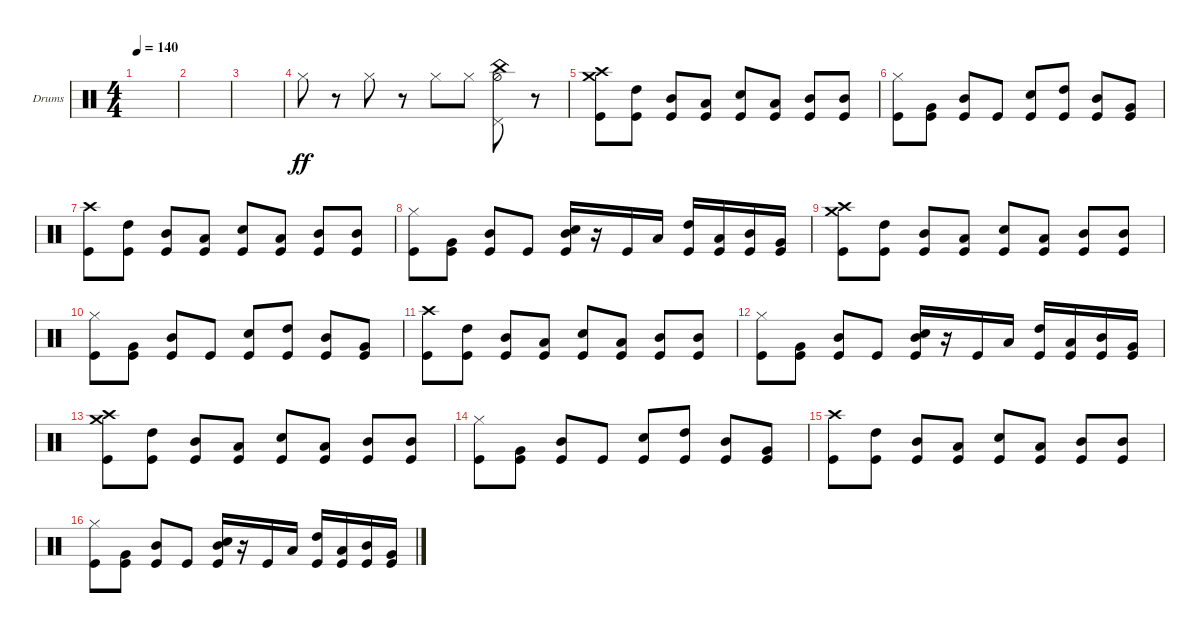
\bracketExtendMode groupsimilarinstruments
\firstSystemTrackNameOrientation horizontal
\otherSystemsTrackNameOrientation horizontal
\track ("Drumkit" "Drums") {instrument percussion}
\staff {score}
\articulation defaults
\ts (4 4)
\tempo 140
\clef neutral
\ks c
|
|
|
"Hi-Hat (closed)".8{dy ff} r.8 "Hi-Hat (closed)".8 r.8 "Hi-Hat (closed)".8 "Hi-Hat (closed)".8 ("Pedal Hi-Hat (hit)" "Hi-Hat (half)" "China (hit)").8 r.8 |
("Kick (hit)" "Crash high (hit)" "Crash medium (hit)").8 ("Kick (hit)" "High Tom (hit)").8 ("Kick (hit)" "Mid Tom (hit)").8 ("Kick (hit)" "Low Tom (hit)").8 ("Kick (hit)" "Snare (hit) 2").8 ("Kick (hit)" "Low Tom (hit)").8 ("Kick (hit)" "Mid Tom (hit)").8 ("Kick (hit)" "Mid Tom (hit)").8 |
("Hi-Hat (closed)" "Kick (hit)").8 ("Kick (hit)" "Very Low Tom (hit)").8 ("Kick (hit)" "Mid Tom (hit)").8 "Kick (hit)".8 ("Snare (hit) 2" "Kick (hit)").8 ("Kick (hit)" "High Tom (hit)").8 ("Kick (hit)" "Mid Tom (hit)").8 ("Kick (hit)" "Very Low Tom (hit)").8 |
("Kick (hit)" "Crash high (hit)").8 ("Kick (hit)" "High Tom (hit)").8 ("Kick (hit)" "Mid Tom (hit)").8 ("Kick (hit)" "Low Tom (hit)").8 ("Kick (hit)" "Snare (hit) 2").8 ("Kick (hit)" "Low Tom (hit)").8 ("Kick (hit)" "Mid Tom (hit)").8 ("Kick (hit)" "Mid Tom (hit)").8 |
("Hi-Hat (closed)" "Kick (hit)").8 ("Kick (hit)" "Very Low Tom (hit)").8 ("Kick (hit)" "Mid Tom (hit)").8 "Kick (hit)".8 ("Kick (hit)" "Mid Tom (hit)" "Snare (hit) 2").16 r.16 "Kick (hit)".16 "Low Tom (hit)".16 ("Kick (hit)" "High Tom (hit)").16 ("Kick (hit)" "Low Tom (hit)").16 ("Kick (hit)" "Mid Tom (hit)").16 ("Kick (hit)" "Very Low Tom (hit)").16 |
("Kick (hit)" "Crash high (hit)" "Crash medium (hit)").8 ("Kick (hit)" "High Tom (hit)").8 ("Kick (hit)" "Mid Tom (hit)").8 ("Kick (hit)" "Low Tom (hit)").8 ("Kick (hit)" "Snare (hit) 2").8 ("Kick (hit)" "Low Tom (hit)").8 ("Kick (hit)" "Mid Tom (hit)").8 ("Kick (hit)" "Mid Tom (hit)").8 |
("Hi-Hat (closed)" "Kick (hit)").8 ("Kick (hit)" "Very Low Tom (hit)").8 ("Kick (hit)" "Mid Tom (hit)").8 "Kick (hit)".8 ("Snare (hit) 2" "Kick (hit)").8 ("Kick (hit)" "High Tom (hit)").8 ("Kick (hit)" "Mid Tom (hit)").8 ("Kick (hit)" "Very Low Tom (hit)").8 |
("Kick (hit)" "Crash high (hit)").8 ("Kick (hit)" "High Tom (hit)").8 ("Kick (hit)" "Mid Tom (hit)").8 ("Kick (hit)" "Low Tom (hit)").8 ("Kick (hit)" "Snare (hit) 2").8 ("Kick (hit)" "Low Tom (hit)").8 ("Kick (hit)" "Mid Tom (hit)").8 ("Kick (hit)" "Mid Tom (hit)").8 |
("Hi-Hat (closed)" "Kick (hit)").8 ("Kick (hit)" "Very Low Tom (hit)").8 ("Kick (hit)" "Mid Tom (hit)").8 "Kick (hit)".8 ("Kick (hit)" "Mid Tom (hit)" "Snare (hit) 2").16 r.16 "Kick (hit)".16 "Low Tom (hit)".16 ("Kick (hit)" "High Tom (hit)").16 ("Kick (hit)" "Low Tom (hit)").16 ("Kick (hit)" "Mid Tom (hit)").16 ("Kick (hit)" "Very Low Tom (hit)").16 |
("Kick (hit)" "Crash high (hit)" "Crash medium (hit)").8 ("Kick (hit)" "High Tom (hit)").8 ("Kick (hit)" "Mid Tom (hit)").8 ("Kick (hit)" "Low Tom (hit)").8 ("Kick (hit)" "Snare (hit) 2").8 ("Kick (hit)" "Low Tom (hit)").8 ("Kick (hit)" "Mid Tom (hit)").8 ("Kick (hit)" "Mid Tom (hit)").8 |
("Hi-Hat (closed)" "Kick (hit)").8 ("Kick (hit)" "Very Low Tom (hit)").8 ("Kick (hit)" "Mid Tom (hit)").8 "Kick (hit)".8 ("Snare (hit) 2" "Kick (hit)").8 ("Kick (hit)" "High Tom (hit)").8 ("Kick (hit)" "Mid Tom (hit)").8 ("Kick (hit)" "Very Low Tom (hit)").8 |
("Kick (hit)" "Crash high (hit)").8 ("Kick (hit)" "High Tom (hit)").8 ("Kick (hit)" "Mid Tom (hit)").8 ("Kick (hit)" "Low Tom (hit)").8 ("Kick (hit)" "Snare (hit) 2").8 ("Kick (hit)" "Low Tom (hit)").8 ("Kick (hit)" "Mid Tom (hit)").8 ("Kick (hit)" "Mid Tom (hit)").8 |
("Hi-Hat (closed)" "Kick (hit)").8 ("Kick (hit)" "Very Low Tom (hit)").8 ("Kick (hit)" "Mid Tom (hit)").8 "Kick (hit)".8 ("Kick (hit)" "Mid Tom (hit)" "Snare (hit) 2").16 r.16 "Kick (hit)".16 "Low Tom (hit)".16 ("Kick (hit)" "High Tom (hit)").16 ("Kick (hit)" "Low Tom (hit)").16 ("Kick (hit)" "Mid Tom (hit)").16 ("Kick (hit)" "Very Low Tom (hit)").16
